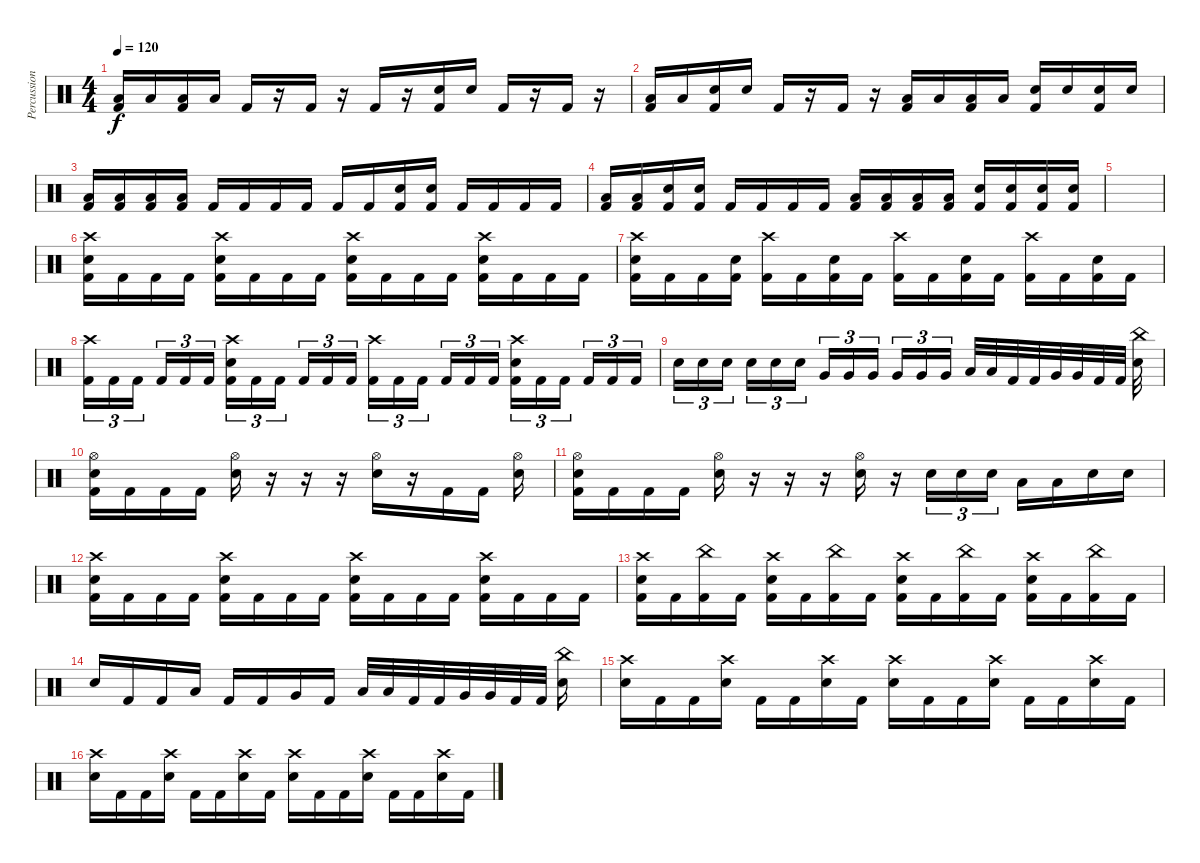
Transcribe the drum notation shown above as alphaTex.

\track ("Percussion" "Percussion") {instrument percussion}
\staff {score}
\articulation defaults
\ts (4 4)
\tempo 120
\clef neutral
\ks c
("Low Tom (hit)" "Kick (hit) 2").16{dy f} "Low Tom (hit)".16 ("Low Floor Tom (hit)" "Kick (hit) 2").16 "Low Floor Tom (hit)".16 "Kick (hit) 2".16 r.16 "Kick (hit) 2".16 r.16 "Kick (hit) 2".16 r.16 ("Electric Snare (hit)" "Kick (hit) 2").16 "Electric Snare (hit)".16 "Kick (hit) 2".16 r.16 "Kick (hit) 2".16 r.16 |
("Low Tom (hit)" "Kick (hit) 2").16 "Low Tom (hit)".16 ("Electric Snare (hit)" "Kick (hit) 2").16 "Electric Snare (hit)".16 "Kick (hit) 2".16 r.16 "Kick (hit) 2".16 r.16 ("Low Tom (hit)" "Kick (hit) 2").16 "Low Tom (hit)".16 ("Low Floor Tom (hit)" "Kick (hit) 2").16 "Low Floor Tom (hit)".16 ("Electric Snare (hit)" "Kick (hit) 2").16 "Electric Snare (hit)".16 ("Electric Snare (hit)" "Kick (hit) 2").16 "Electric Snare (hit)".16 |
("Low Tom (hit)" "Kick (hit) 2").16 ("Low Tom (hit)" "Kick (hit) 2").16 ("Low Floor Tom (hit)" "Kick (hit) 2").16 ("Low Floor Tom (hit)" "Kick (hit) 2").16 "Kick (hit) 2".16 "Kick (hit) 2".16 "Kick (hit) 2".16 "Kick (hit) 2".16 "Kick (hit) 2".16 "Kick (hit) 2".16 ("Electric Snare (hit)" "Kick (hit) 2").16 ("Electric Snare (hit)" "Kick (hit) 2").16 "Kick (hit) 2".16 "Kick (hit) 2".16 "Kick (hit) 2".16 "Kick (hit) 2".16 |
("Low Tom (hit)" "Kick (hit) 2").16 ("Low Tom (hit)" "Kick (hit) 2").16 ("Electric Snare (hit)" "Kick (hit) 2").16 ("Electric Snare (hit)" "Kick (hit) 2").16 "Kick (hit) 2".16 "Kick (hit) 2".16 "Kick (hit) 2".16 "Kick (hit) 2".16 ("Low Tom (hit)" "Kick (hit) 2").16 ("Low Tom (hit)" "Kick (hit) 2").16 ("Low Floor Tom (hit)" "Kick (hit) 2").16 ("Low Floor Tom (hit)" "Kick (hit) 2").16 ("Electric Snare (hit)" "Kick (hit) 2").16 ("Electric Snare (hit)" "Kick (hit) 2").16 ("Electric Snare (hit)" "Kick (hit) 2").16 ("Electric Snare (hit)" "Kick (hit) 2").16 |
|
("Kick (hit) 2" "Electric Snare (hit)" "Crash high (hit)").16 "Kick (hit) 2".16 "Kick (hit) 2".16 "Kick (hit) 2".16 ("Kick (hit) 2" "Electric Snare (hit)" "Crash high (hit)").16 "Kick (hit) 2".16 "Kick (hit) 2".16 "Kick (hit) 2".16 ("Kick (hit) 2" "Electric Snare (hit)" "Crash high (hit)").16 "Kick (hit) 2".16 "Kick (hit) 2".16 "Kick (hit) 2".16 ("Kick (hit) 2" "Electric Snare (hit)" "Crash high (hit)").16 "Kick (hit) 2".16 "Kick (hit) 2".16 "Kick (hit) 2".16 |
("Kick (hit) 2" "Electric Snare (hit)" "Crash high (hit)").16 "Kick (hit) 2".16 "Kick (hit) 2".16 ("Kick (hit) 2" "Electric Snare (hit)").16 ("Kick (hit) 2" "Crash high (hit)").16 "Kick (hit) 2".16 ("Kick (hit) 2" "Electric Snare (hit)").16 "Kick (hit) 2".16 ("Kick (hit) 2" "Crash high (hit)").16 "Kick (hit) 2".16 ("Kick (hit) 2" "Electric Snare (hit)").16 "Kick (hit) 2".16 ("Kick (hit) 2" "Crash high (hit)").16 "Kick (hit) 2".16 ("Kick (hit) 2" "Electric Snare (hit)").16 "Kick (hit) 2".16 |
("Kick (hit) 2" "Crash high (hit)").16{tu (3 2)} "Kick (hit) 2".16{tu (3 2)} "Kick (hit) 2".16{tu (3 2)} "Kick (hit) 2".16{tu (3 2)} "Kick (hit) 2".16{tu (3 2)} "Kick (hit) 2".16{tu (3 2)} ("Kick (hit) 2" "Crash high (hit)" "Electric Snare (hit)").16{tu (3 2)} "Kick (hit) 2".16{tu (3 2)} "Kick (hit) 2".16{tu (3 2)} "Kick (hit) 2".16{tu (3 2)} "Kick (hit) 2".16{tu (3 2)} "Kick (hit) 2".16{tu (3 2)} ("Kick (hit) 2" "Crash high (hit)").16{tu (3 2)} "Kick (hit) 2".16{tu (3 2)} "Kick (hit) 2".16{tu (3 2)} "Kick (hit) 2".16{tu (3 2)} "Kick (hit) 2".16{tu (3 2)} "Kick (hit) 2".16{tu (3 2)} ("Kick (hit) 2" "Crash high (hit)" "Electric Snare (hit)").16{tu (3 2)} "Kick (hit) 2".16{tu (3 2)} "Kick (hit) 2".16{tu (3 2)} "Kick (hit) 2".16{tu (3 2)} "Kick (hit) 2".16{tu (3 2)} "Kick (hit) 2".16{tu (3 2)} |
"Electric Snare (hit)".16{tu (3 2)} "Electric Snare (hit)".16{tu (3 2)} "Electric Snare (hit)".16{tu (3 2)} "Electric Snare (hit)".16{tu (3 2)} "Electric Snare (hit)".16{tu (3 2)} "Electric Snare (hit)".16{tu (3 2)} "Very Low Tom (hit)".16{tu (3 2)} "Very Low Tom (hit)".16{tu (3 2)} "Very Low Tom (hit)".16{tu (3 2)} "Very Low Tom (hit)".16{tu (3 2)} "Very Low Tom (hit)".16{tu (3 2)} "Very Low Tom (hit)".16{tu (3 2)} "Low Tom (hit)".32 "Low Tom (hit)".32 "Kick (hit) 2".32 "Kick (hit) 2".32 "Very Low Tom (hit)".32 "Very Low Tom (hit)".32 "Kick (hit) 2".32 "Kick (hit) 2".32 ("Electric Snare (hit)" "China (hit)").32 |
("Kick (hit) 2" "Electric Snare (hit)" "Hi-Hat (open)").16 "Kick (hit) 2".16 "Kick (hit) 2".16 "Kick (hit) 2".16 ("Electric Snare (hit)" "Hi-Hat (open)").16 r.16 r.16 r.16 ("Electric Snare (hit)" "Hi-Hat (open)").16 r.16 "Kick (hit) 2".16 "Kick (hit) 2".16 ("Electric Snare (hit)" "Hi-Hat (open)").16 |
("Kick (hit) 2" "Electric Snare (hit)" "Hi-Hat (open)").16 "Kick (hit) 2".16 "Kick (hit) 2".16 "Kick (hit) 2".16 ("Electric Snare (hit)" "Hi-Hat (open)").16 r.16 r.16 r.16 ("Electric Snare (hit)" "Hi-Hat (open)").16 r.16 "Electric Snare (hit)".16{tu (3 2)} "Electric Snare (hit)".16{tu (3 2)} "Electric Snare (hit)".16{tu (3 2)} "Low Floor Tom (hit)".16 "Low Tom (hit)".16 "Electric Snare (hit)".16 "Electric Snare (hit)".16 |
("Kick (hit) 2" "Electric Snare (hit)" "Crash high (hit)").16 "Kick (hit) 2".16 "Kick (hit) 2".16 "Kick (hit) 2".16 ("Kick (hit) 2" "Electric Snare (hit)" "Crash high (hit)").16 "Kick (hit) 2".16 "Kick (hit) 2".16 "Kick (hit) 2".16 ("Kick (hit) 2" "Electric Snare (hit)" "Crash high (hit)").16 "Kick (hit) 2".16 "Kick (hit) 2".16 "Kick (hit) 2".16 ("Kick (hit) 2" "Electric Snare (hit)" "Crash high (hit)").16 "Kick (hit) 2".16 "Kick (hit) 2".16 "Kick (hit) 2".16 |
("Kick (hit) 2" "Electric Snare (hit)" "Crash high (hit)").16 "Kick (hit) 2".16 ("Kick (hit) 2" "China (hit)").16 "Kick (hit) 2".16 ("Kick (hit) 2" "Electric Snare (hit)" "Crash high (hit)").16 "Kick (hit) 2".16 ("Kick (hit) 2" "China (hit)").16 "Kick (hit) 2".16 ("Kick (hit) 2" "Electric Snare (hit)" "Crash high (hit)").16 "Kick (hit) 2".16 ("Kick (hit) 2" "China (hit)").16 "Kick (hit) 2".16 ("Kick (hit) 2" "Electric Snare (hit)" "Crash high (hit)").16 "Kick (hit) 2".16 ("Kick (hit) 2" "China (hit)").16 "Kick (hit) 2".16 |
"Electric Snare (hit)".16 "Kick (hit) 2".16 "Kick (hit) 2".16 "Low Tom (hit)".16 "Kick (hit) 2".16 "Kick (hit) 2".16 "Very Low Tom (hit)".16 "Kick (hit) 2".16 "Low Tom (hit)".32 "Low Tom (hit)".32 "Kick (hit) 2".32 "Kick (hit) 2".32 "Very Low Tom (hit)".32 "Very Low Tom (hit)".32 "Kick (hit) 2".32 "Kick (hit) 2".32 ("Electric Snare (hit)" "China (hit)").16 |
("Electric Snare (hit)" "Crash high (hit)").16 "Kick (hit) 2".16 "Kick (hit) 2".16 ("Electric Snare (hit)" "Crash high (hit)").16 "Kick (hit) 2".16 "Kick (hit) 2".16 ("Electric Snare (hit)" "Crash high (hit)").16 "Kick (hit) 2".16 ("Electric Snare (hit)" "Crash high (hit)").16 "Kick (hit) 2".16 "Kick (hit) 2".16 ("Electric Snare (hit)" "Crash high (hit)").16 "Kick (hit) 2".16 "Kick (hit) 2".16 ("Electric Snare (hit)" "Crash high (hit)").16 "Kick (hit) 2".16 |
("Electric Snare (hit)" "Crash high (hit)").16 "Kick (hit) 2".16 "Kick (hit) 2".16 ("Electric Snare (hit)" "Crash high (hit)").16 "Kick (hit) 2".16 "Kick (hit) 2".16 ("Electric Snare (hit)" "Crash high (hit)").16 "Kick (hit) 2".16 ("Electric Snare (hit)" "Crash high (hit)").16 "Kick (hit) 2".16 "Kick (hit) 2".16 ("Electric Snare (hit)" "Crash high (hit)").16 "Kick (hit) 2".16 "Kick (hit) 2".16 ("Electric Snare (hit)" "Crash high (hit)").16 "Kick (hit) 2".16
